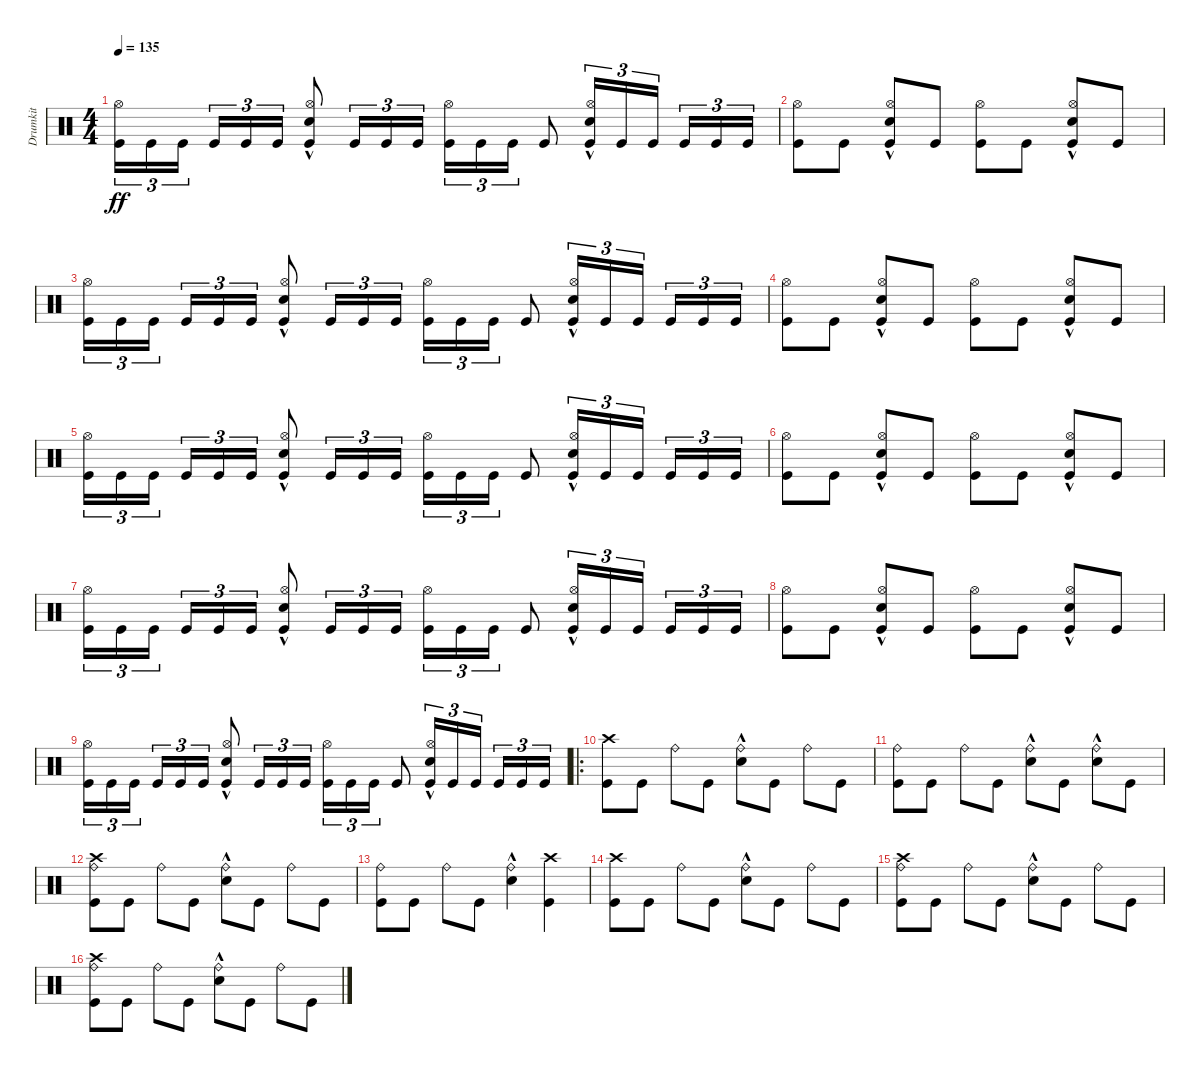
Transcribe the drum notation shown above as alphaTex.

\track ("Drumkit" "Drumkit") {instrument percussion}
\staff {score}
\articulation defaults
\ts (4 4)
\tempo 135
\clef neutral
\ks c
("Kick (hit)" "Hi-Hat (open)").16{tu (3 2) dy ff} "Kick (hit)".16{tu (3 2)} "Kick (hit)".16{tu (3 2) beam splitsecondary} "Kick (hit)".16{tu (3 2)} "Kick (hit)".16{tu (3 2)} "Kick (hit)".16{tu (3 2)} ("Kick (hit)" "Hi-Hat (open)" "Snare (hit) 2"{hac}).8 "Kick (hit)".16{tu (3 2)} "Kick (hit)".16{tu (3 2)} "Kick (hit)".16{tu (3 2)} ("Kick (hit)" "Hi-Hat (open)").16{tu (3 2)} "Kick (hit)".16{tu (3 2)} "Kick (hit)".16{tu (3 2)} "Kick (hit)".8 ("Kick (hit)" "Hi-Hat (open)" "Snare (hit) 2"{hac}).16{tu (3 2)} "Kick (hit)".16{tu (3 2)} "Kick (hit)".16{tu (3 2) beam splitsecondary} "Kick (hit)".16{tu (3 2)} "Kick (hit)".16{tu (3 2)} "Kick (hit)".16{tu (3 2)} |
("Kick (hit)" "Hi-Hat (open)").8 "Kick (hit)".8 ("Snare (hit) 2"{hac} "Hi-Hat (open)" "Kick (hit)").8 "Kick (hit)".8 ("Kick (hit)" "Hi-Hat (open)").8 "Kick (hit)".8 ("Snare (hit) 2"{hac} "Hi-Hat (open)" "Kick (hit)").8 "Kick (hit)".8 |
("Kick (hit)" "Hi-Hat (open)").16{tu (3 2)} "Kick (hit)".16{tu (3 2)} "Kick (hit)".16{tu (3 2) beam splitsecondary} "Kick (hit)".16{tu (3 2)} "Kick (hit)".16{tu (3 2)} "Kick (hit)".16{tu (3 2)} ("Kick (hit)" "Hi-Hat (open)" "Snare (hit) 2"{hac}).8 "Kick (hit)".16{tu (3 2)} "Kick (hit)".16{tu (3 2)} "Kick (hit)".16{tu (3 2)} ("Kick (hit)" "Hi-Hat (open)").16{tu (3 2)} "Kick (hit)".16{tu (3 2)} "Kick (hit)".16{tu (3 2)} "Kick (hit)".8 ("Kick (hit)" "Hi-Hat (open)" "Snare (hit) 2"{hac}).16{tu (3 2)} "Kick (hit)".16{tu (3 2)} "Kick (hit)".16{tu (3 2) beam splitsecondary} "Kick (hit)".16{tu (3 2)} "Kick (hit)".16{tu (3 2)} "Kick (hit)".16{tu (3 2)} |
("Kick (hit)" "Hi-Hat (open)").8 "Kick (hit)".8 ("Snare (hit) 2"{hac} "Hi-Hat (open)" "Kick (hit)").8 "Kick (hit)".8 ("Kick (hit)" "Hi-Hat (open)").8 "Kick (hit)".8 ("Snare (hit) 2"{hac} "Hi-Hat (open)" "Kick (hit)").8 "Kick (hit)".8 |
("Kick (hit)" "Hi-Hat (open)").16{tu (3 2)} "Kick (hit)".16{tu (3 2)} "Kick (hit)".16{tu (3 2) beam splitsecondary} "Kick (hit)".16{tu (3 2)} "Kick (hit)".16{tu (3 2)} "Kick (hit)".16{tu (3 2)} ("Kick (hit)" "Hi-Hat (open)" "Snare (hit) 2"{hac}).8 "Kick (hit)".16{tu (3 2)} "Kick (hit)".16{tu (3 2)} "Kick (hit)".16{tu (3 2)} ("Kick (hit)" "Hi-Hat (open)").16{tu (3 2)} "Kick (hit)".16{tu (3 2)} "Kick (hit)".16{tu (3 2)} "Kick (hit)".8 ("Kick (hit)" "Hi-Hat (open)" "Snare (hit) 2"{hac}).16{tu (3 2)} "Kick (hit)".16{tu (3 2)} "Kick (hit)".16{tu (3 2) beam splitsecondary} "Kick (hit)".16{tu (3 2)} "Kick (hit)".16{tu (3 2)} "Kick (hit)".16{tu (3 2)} |
("Kick (hit)" "Hi-Hat (open)").8 "Kick (hit)".8 ("Snare (hit) 2"{hac} "Hi-Hat (open)" "Kick (hit)").8 "Kick (hit)".8 ("Kick (hit)" "Hi-Hat (open)").8 "Kick (hit)".8 ("Snare (hit) 2"{hac} "Hi-Hat (open)" "Kick (hit)").8 "Kick (hit)".8 |
("Kick (hit)" "Hi-Hat (open)").16{tu (3 2)} "Kick (hit)".16{tu (3 2)} "Kick (hit)".16{tu (3 2) beam splitsecondary} "Kick (hit)".16{tu (3 2)} "Kick (hit)".16{tu (3 2)} "Kick (hit)".16{tu (3 2)} ("Kick (hit)" "Hi-Hat (open)" "Snare (hit) 2"{hac}).8 "Kick (hit)".16{tu (3 2)} "Kick (hit)".16{tu (3 2)} "Kick (hit)".16{tu (3 2)} ("Kick (hit)" "Hi-Hat (open)").16{tu (3 2)} "Kick (hit)".16{tu (3 2)} "Kick (hit)".16{tu (3 2)} "Kick (hit)".8 ("Kick (hit)" "Hi-Hat (open)" "Snare (hit) 2"{hac}).16{tu (3 2)} "Kick (hit)".16{tu (3 2)} "Kick (hit)".16{tu (3 2) beam splitsecondary} "Kick (hit)".16{tu (3 2)} "Kick (hit)".16{tu (3 2)} "Kick (hit)".16{tu (3 2)} |
("Kick (hit)" "Hi-Hat (open)").8 "Kick (hit)".8 ("Snare (hit) 2"{hac} "Hi-Hat (open)" "Kick (hit)").8 "Kick (hit)".8 ("Kick (hit)" "Hi-Hat (open)").8 "Kick (hit)".8 ("Snare (hit) 2"{hac} "Hi-Hat (open)" "Kick (hit)").8 "Kick (hit)".8 |
("Kick (hit)" "Hi-Hat (open)").16{tu (3 2)} "Kick (hit)".16{tu (3 2)} "Kick (hit)".16{tu (3 2) beam splitsecondary} "Kick (hit)".16{tu (3 2)} "Kick (hit)".16{tu (3 2)} "Kick (hit)".16{tu (3 2)} ("Kick (hit)" "Hi-Hat (open)" "Snare (hit) 2"{hac}).8 "Kick (hit)".16{tu (3 2)} "Kick (hit)".16{tu (3 2)} "Kick (hit)".16{tu (3 2)} ("Kick (hit)" "Hi-Hat (open)").16{tu (3 2)} "Kick (hit)".16{tu (3 2)} "Kick (hit)".16{tu (3 2)} "Kick (hit)".8 ("Kick (hit)" "Hi-Hat (open)" "Snare (hit) 2"{hac}).16{tu (3 2)} "Kick (hit)".16{tu (3 2)} "Kick (hit)".16{tu (3 2) beam splitsecondary} "Kick (hit)".16{tu (3 2)} "Kick (hit)".16{tu (3 2)} "Kick (hit)".16{tu (3 2)} |
\ro
("Kick (hit)" "Crash high (hit)").8 "Kick (hit)".8 "Ride (bell)".8 "Kick (hit)".8 ("Ride (bell)" "Snare (hit) 2"{hac}).8 "Kick (hit)".8 "Ride (bell)".8 "Kick (hit)".8 |
("Ride (bell)" "Kick (hit)").8 "Kick (hit)".8 "Ride (bell)".8 "Kick (hit)".8 ("Snare (hit) 2"{hac} "Ride (bell)").8 "Kick (hit)".8 ("Snare (hit) 2"{hac} "Ride (bell)").8 "Kick (hit)".8 |
("Kick (hit)" "Crash high (hit)" "Ride (bell)").8 "Kick (hit)".8 "Ride (bell)".8 "Kick (hit)".8 ("Ride (bell)" "Snare (hit) 2"{hac}).8 "Kick (hit)".8 "Ride (bell)".8 "Kick (hit)".8 |
("Ride (bell)" "Kick (hit)").8 "Kick (hit)".8 "Ride (bell)".8 "Kick (hit)".8 ("Ride (bell)" "Snare (hit) 2"{hac}).4 ("Kick (hit)" "Crash high (hit)").4 |
("Kick (hit)" "Crash high (hit)").8 "Kick (hit)".8 "Ride (bell)".8 "Kick (hit)".8 ("Ride (bell)" "Snare (hit) 2"{hac}).8 "Kick (hit)".8 "Ride (bell)".8 "Kick (hit)".8 |
("Kick (hit)" "Crash high (hit)" "Ride (bell)").8 "Kick (hit)".8 "Ride (bell)".8 "Kick (hit)".8 ("Ride (bell)" "Snare (hit) 2"{hac}).8 "Kick (hit)".8 "Ride (bell)".8 "Kick (hit)".8 |
("Kick (hit)" "Crash high (hit)" "Ride (bell)").8 "Kick (hit)".8 "Ride (bell)".8 "Kick (hit)".8 ("Ride (bell)" "Snare (hit) 2"{hac}).8 "Kick (hit)".8 "Ride (bell)".8 "Kick (hit)".8
